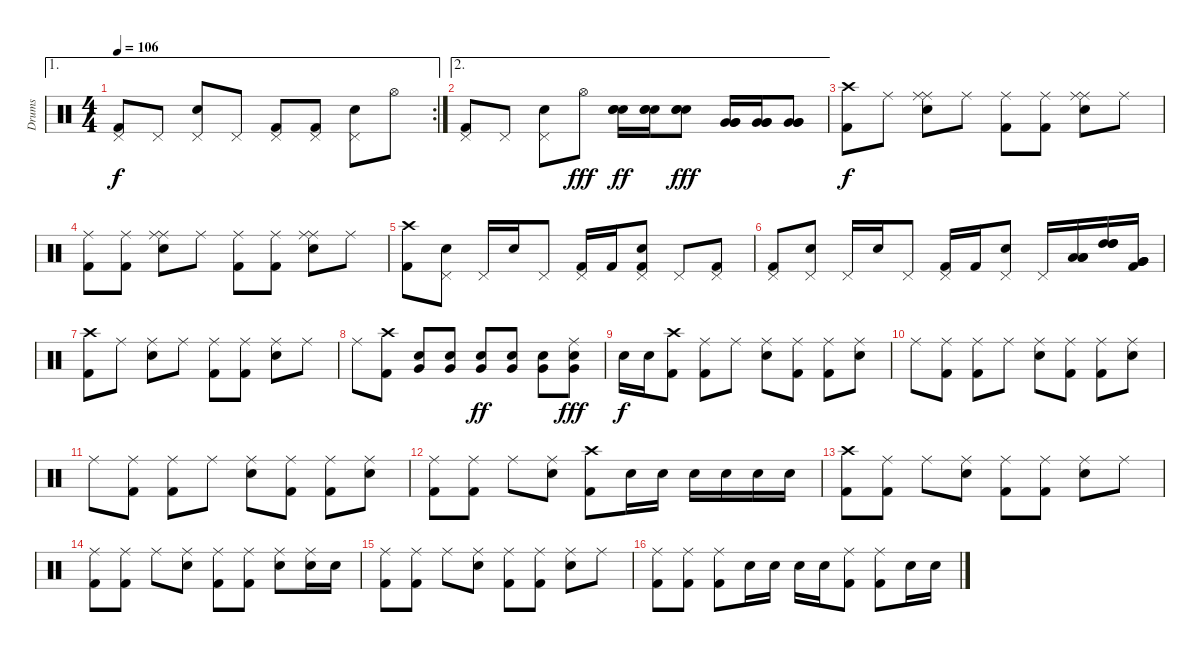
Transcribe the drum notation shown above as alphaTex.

\track ("Drums" "Drums") {instrument percussion}
\staff {score}
\articulation defaults
\ae 1
\rc 2
\ts (4 4)
\tempo 106
\clef neutral
\ks c
("Pedal Hi-Hat (hit)" "Kick (hit) 2").8{dy f} "Pedal Hi-Hat (hit)".8 ("Pedal Hi-Hat (hit)" "Snare (hit) 2").8 "Pedal Hi-Hat (hit)".8 ("Pedal Hi-Hat (hit)" "Kick (hit) 2").8 ("Pedal Hi-Hat (hit)" "Kick (hit) 2").8 ("Pedal Hi-Hat (hit)" "Snare (hit) 2").8 "Hi-Hat (open)".8 |
\ae 2
("Pedal Hi-Hat (hit)" "Kick (hit) 2").8 "Pedal Hi-Hat (hit)".8 ("Pedal Hi-Hat (hit)" "Snare (hit) 2").8 "Hi-Hat (open)".8{dy fff} ("Snare (hit) 2" "Snare (hit) 2" "Snare (hit) 2").16{dy ff} ("Snare (hit) 2" "Snare (hit) 2" "Snare (hit) 2").16 ("Snare (hit) 2" "Snare (hit) 2" "Snare (hit) 2").8{dy fff} ("Very Low Tom (hit)" "Very Low Tom (hit)" "Very Low Tom (hit)").16 ("Very Low Tom (hit)" "Very Low Tom (hit)" "Very Low Tom (hit)").16 ("Very Low Tom (hit)" "Very Low Tom (hit)" "Very Low Tom (hit)").8 |
("Crash high (hit)" "Kick (hit) 2").8{dy f} "Ride (middle)".8 ("Ride (middle)" "Ride (middle)" "Snare (hit) 2").8 "Ride (middle)".8 ("Ride (middle)" "Kick (hit) 2").8 ("Ride (middle)" "Kick (hit) 2").8 ("Ride (middle)" "Ride (middle)" "Snare (hit) 2").8 "Ride (middle)".8 |
("Ride (middle)" "Kick (hit) 2").8 ("Ride (middle)" "Kick (hit) 2").8 ("Ride (middle)" "Ride (middle)" "Snare (hit) 2").8 "Ride (middle)".8 ("Ride (middle)" "Kick (hit) 2").8 ("Ride (middle)" "Kick (hit) 2").8 ("Ride (middle)" "Ride (middle)" "Snare (hit) 2").8 "Ride (middle)".8 |
("Crash high (hit)" "Kick (hit) 2").8 ("Pedal Hi-Hat (hit)" "Snare (hit) 2").8 "Pedal Hi-Hat (hit)".16 "Snare (hit) 2".16 "Pedal Hi-Hat (hit)".8 ("Pedal Hi-Hat (hit)" "Kick (hit) 2").16 "Kick (hit) 2".16 ("Pedal Hi-Hat (hit)" "Snare (hit) 2" "Kick (hit) 2").8 "Pedal Hi-Hat (hit)".8 ("Pedal Hi-Hat (hit)" "Kick (hit) 2").8 |
("Pedal Hi-Hat (hit)" "Kick (hit) 2").8 ("Pedal Hi-Hat (hit)" "Snare (hit) 2").8 "Pedal Hi-Hat (hit)".16 "Snare (hit) 2".16 "Pedal Hi-Hat (hit)".8 ("Pedal Hi-Hat (hit)" "Kick (hit) 2").16 "Kick (hit) 2".16 ("Pedal Hi-Hat (hit)" "Snare (hit) 2").8 "Pedal Hi-Hat (hit)".16 ("Low Floor Tom (hit)" "Low Floor Tom (hit)" "Low Floor Tom (hit)").16 ("High Tom (hit)" "High Tom (hit)" "High Tom (hit)").16 ("Very Low Tom (hit)" "Very Low Tom (hit)" "Very Low Tom (hit)" "Kick (hit) 2").16 |
("Crash high (hit)" "Kick (hit) 2").8 "Ride (middle)".8 ("Ride (middle)" "Snare (hit) 2").8 "Ride (middle)".8 ("Ride (middle)" "Kick (hit) 2").8 ("Ride (middle)" "Kick (hit) 2").8 ("Ride (middle)" "Snare (hit) 2").8 "Ride (middle)".8 |
"Ride (middle)".8 ("Crash high (hit)" "Kick (hit) 2").8 ("Snare (hit) 2" "Very Low Tom (hit)").8 ("Snare (hit) 2" "Very Low Tom (hit)").8 ("Snare (hit) 2" "Very Low Tom (hit)").8{dy ff} ("Snare (hit) 2" "Very Low Tom (hit)").8 ("Snare (hit) 2" "Very Low Tom (hit)").8 ("Ride (middle)" "Snare (hit) 2" "Very Low Tom (hit)").8{dy fff} |
"Snare (hit) 2".16{dy f} "Snare (hit) 2".16 ("Crash high (hit)" "Kick (hit) 2").8{volume 16} ("Ride (middle)" "Kick (hit) 2").8 "Ride (middle)".8 ("Ride (middle)" "Snare (hit) 2").8 ("Ride (middle)" "Kick (hit) 2").8 ("Ride (middle)" "Kick (hit) 2").8 ("Ride (middle)" "Snare (hit) 2").8 |
"Ride (middle)".8 ("Ride (middle)" "Kick (hit) 2").8 ("Ride (middle)" "Kick (hit) 2").8 "Ride (middle)".8 ("Ride (middle)" "Snare (hit) 2").8 ("Ride (middle)" "Kick (hit) 2").8 ("Ride (middle)" "Kick (hit) 2").8 ("Ride (middle)" "Snare (hit) 2").8 |
"Ride (middle)".8 ("Ride (middle)" "Kick (hit) 2").8{volume 16} ("Ride (middle)" "Kick (hit) 2").8 "Ride (middle)".8 ("Ride (middle)" "Snare (hit) 2").8 ("Ride (middle)" "Kick (hit) 2").8 ("Ride (middle)" "Kick (hit) 2").8 ("Ride (middle)" "Snare (hit) 2").8 |
("Ride (middle)" "Kick (hit) 2").8{volume 16} ("Ride (middle)" "Kick (hit) 2").8 "Ride (middle)".8 ("Ride (middle)" "Snare (hit) 2").8 ("Crash high (hit)" "Kick (hit) 2").8 "Snare (hit) 2".16 "Snare (hit) 2".16 "Snare (hit) 2".16 "Snare (hit) 2".16 "Snare (hit) 2".16 "Snare (hit) 2".16 |
("Crash high (hit)" "Kick (hit) 2").8{volume 16} ("Ride (middle)" "Kick (hit) 2").8 "Ride (middle)".8 ("Ride (middle)" "Snare (hit) 2").8 ("Ride (middle)" "Kick (hit) 2").8 ("Ride (middle)" "Kick (hit) 2").8 ("Ride (middle)" "Snare (hit) 2").8 "Ride (middle)".8 |
("Ride (middle)" "Kick (hit) 2").8 ("Ride (middle)" "Kick (hit) 2").8 "Ride (middle)".8 ("Ride (middle)" "Snare (hit) 2").8 ("Ride (middle)" "Kick (hit) 2").8 ("Ride (middle)" "Kick (hit) 2").8 ("Ride (middle)" "Snare (hit) 2").8 ("Ride (middle)" "Snare (hit) 2").16 "Snare (hit) 2".16 |
("Ride (middle)" "Kick (hit) 2").8{volume 16} ("Ride (middle)" "Kick (hit) 2").8 "Ride (middle)".8 ("Ride (middle)" "Snare (hit) 2").8 ("Ride (middle)" "Kick (hit) 2").8 ("Ride (middle)" "Kick (hit) 2").8 ("Ride (middle)" "Snare (hit) 2").8 "Ride (middle)".8 |
("Ride (middle)" "Kick (hit) 2").8 ("Ride (middle)" "Kick (hit) 2").8 ("Ride (middle)" "Kick (hit) 2").8 "Snare (hit) 2".16 "Snare (hit) 2".16 "Snare (hit) 2".16 "Snare (hit) 2".16 ("Ride (middle)" "Kick (hit) 2").8 ("Ride (middle)" "Kick (hit) 2").8 "Snare (hit) 2".16 "Snare (hit) 2".16
